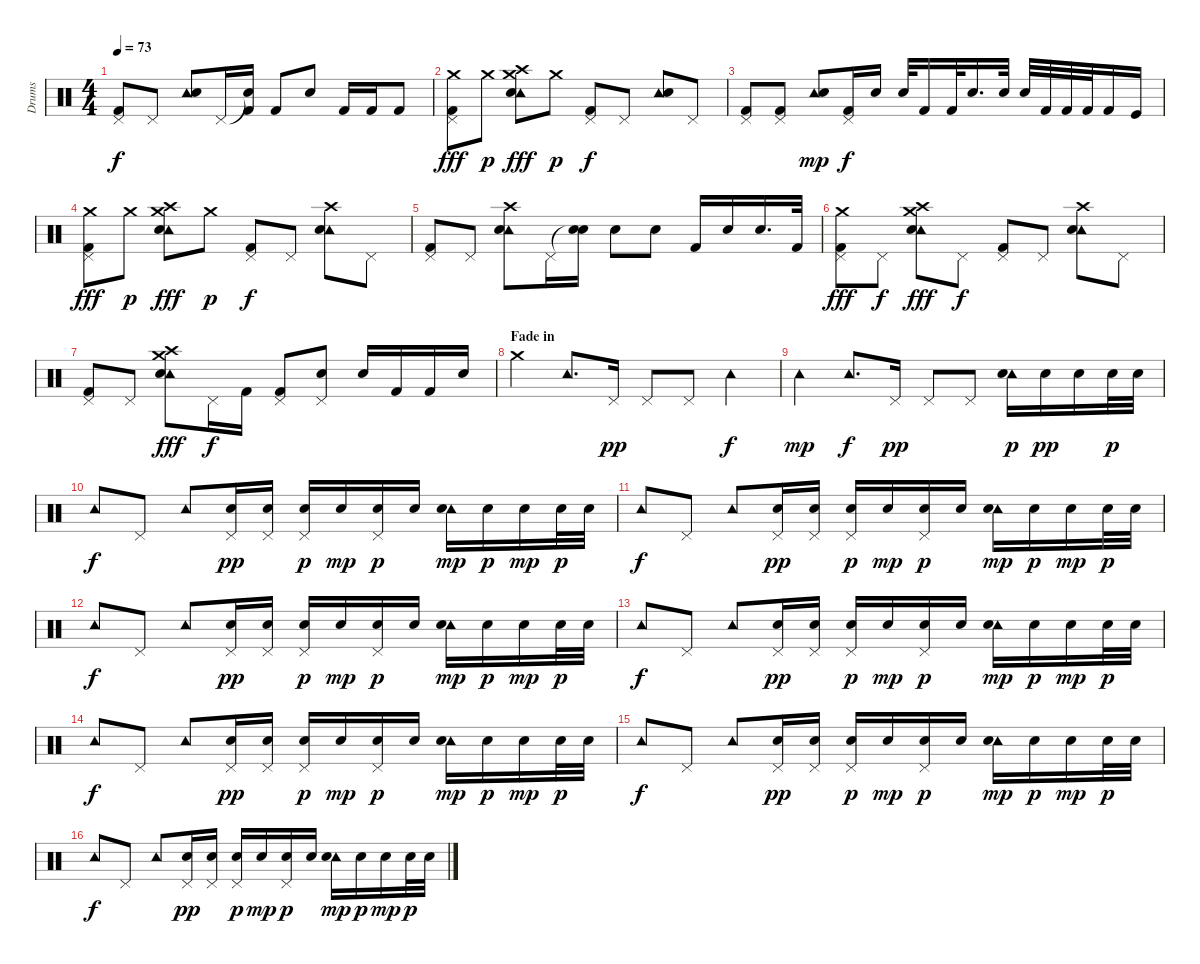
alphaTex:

\track ("Drums" "Drums") {instrument percussion}
\staff {score}
\articulation defaults
\ts (4 4)
\tempo 73
\clef neutral
\ks c
("Pedal Hi-Hat (hit)" "Kick (hit) 2").8{dy f} "Pedal Hi-Hat (hit)".8 ("Tambourine (hit)" "Snare (hit) 2").8 "Pedal Hi-Hat (hit)".16 ("Snare (hit)"{t} "Kick (hit) 2").16 "Kick (hit) 2".8 "Snare (hit) 2".8 "Kick (hit) 2".16 "Kick (hit) 2".16 "Kick (hit) 2".8 |
("Crash medium (hit)" "Pedal Hi-Hat (hit)" "Kick (hit) 2").8{dy fff} "Crash medium (hit)".8{dy p} ("Crash medium (hit)" "Tambourine (hit)" "Crash high (hit)" "Snare (hit) 2").8{dy fff} "Crash medium (hit)".8{dy p} ("Pedal Hi-Hat (hit)" "Kick (hit) 2").8{dy f} "Pedal Hi-Hat (hit)".8 ("Tambourine (hit)" "Snare (hit) 2").8 "Pedal Hi-Hat (hit)".8 |
("Pedal Hi-Hat (hit)" "Kick (hit) 2").8 ("Pedal Hi-Hat (hit)" "Kick (hit) 2").8 ("Tambourine (hit)" "Snare (hit) 2").8{dy mp} ("Pedal Hi-Hat (hit)" "Kick (hit) 2").16{dy f} "Snare (hit) 2".16 "Snare (hit) 2".32 "Kick (hit) 2".16 "Kick (hit) 2".32 "Snare (hit) 2".16{d} "Snare (hit) 2".32 "Snare (hit) 2".32 "Kick (hit) 2".32 "Kick (hit) 2".32 "Kick (hit) 2".32 "Kick (hit) 2".16 "Kick (hit)".16 |
("Crash medium (hit)" "Pedal Hi-Hat (hit)" "Kick (hit) 2").8{dy fff} "Crash medium (hit)".8{dy p} ("Crash medium (hit)" "Tambourine (hit)" "Crash high (hit)" "Snare (hit) 2").8{dy fff} "Crash medium (hit)".8{dy p} ("Pedal Hi-Hat (hit)" "Kick (hit) 2").8{dy f} "Pedal Hi-Hat (hit)".8 ("Tambourine (hit)" "Crash high (hit)" "Snare (hit) 2").8 "Pedal Hi-Hat (hit)".8 |
("Pedal Hi-Hat (hit)" "Kick (hit) 2").8 "Pedal Hi-Hat (hit)".8 ("Crash high (hit)" "Tambourine (hit)" "Snare (hit) 2").8 "Pedal Hi-Hat (hit)".16 ("Snare (hit)"{t} "Snare (hit) 2").16 "Snare (hit) 2".8 "Snare (hit) 2".8 "Kick (hit) 2".16 "Snare (hit) 2".16 "Snare (hit) 2".16{d} "Kick (hit) 2".32 |
("Crash medium (hit)" "Pedal Hi-Hat (hit)" "Kick (hit) 2").8{dy fff} "Pedal Hi-Hat (hit)".8{dy f} ("Crash medium (hit)" "Tambourine (hit)" "Crash high (hit)" "Snare (hit) 2").8{dy fff} "Pedal Hi-Hat (hit)".8{dy f} ("Pedal Hi-Hat (hit)" "Kick (hit) 2").8 "Pedal Hi-Hat (hit)".8 ("Tambourine (hit)" "Crash high (hit)" "Snare (hit) 2").8 "Pedal Hi-Hat (hit)".8 |
("Pedal Hi-Hat (hit)" "Kick (hit) 2").8 "Pedal Hi-Hat (hit)".8 ("Crash medium (hit)" "Tambourine (hit)" "Crash high (hit)" "Snare (hit) 2").8{dy fff} "Pedal Hi-Hat (hit)".16{dy f} "Kick (hit) 2".16 ("Pedal Hi-Hat (hit)" "Kick (hit) 2").8 ("Pedal Hi-Hat (hit)" "Snare (hit) 2").8 "Snare (hit) 2".16 "Kick (hit) 2".16 "Kick (hit) 2".16 "Snare (hit) 2".16 |
\section ("" "Fade in")
"Crash medium (hit)".4{volume 8} "Tambourine (hit)".8{d} "Pedal Hi-Hat (hit)".16{dy pp} "Pedal Hi-Hat (hit)".8 "Pedal Hi-Hat (hit)".8 "Tambourine (hit)".4{dy f} |
"Tambourine (hit)".4{dy mp} "Tambourine (hit)".8{d dy f} "Pedal Hi-Hat (hit)".16{dy pp} "Pedal Hi-Hat (hit)".8 "Pedal Hi-Hat (hit)".8 ("Tambourine (hit)" "Snare (hit) 2").16{dy p} "Snare (hit) 2".16{dy pp} "Snare (hit) 2".16 "Snare (hit) 2".32{dy p} "Snare (hit) 2".32 |
"Tambourine (hit)".8{dy f} "Pedal Hi-Hat (hit)".8 "Tambourine (hit)".8 ("Pedal Hi-Hat (hit)" "Snare (hit) 2").16{dy pp} ("Pedal Hi-Hat (hit)" "Snare (hit) 2").16 ("Pedal Hi-Hat (hit)" "Snare (hit) 2").16{dy p} "Snare (hit) 2".16{dy mp} ("Pedal Hi-Hat (hit)" "Snare (hit) 2").16{dy p} "Snare (hit) 2".16 ("Tambourine (hit)" "Snare (hit) 2").16{dy mp} "Snare (hit) 2".16{dy p} "Snare (hit) 2".16{dy mp} "Snare (hit) 2".32{dy p} "Snare (hit) 2".32 |
"Tambourine (hit)".8{dy f} "Pedal Hi-Hat (hit)".8 "Tambourine (hit)".8 ("Pedal Hi-Hat (hit)" "Snare (hit) 2").16{dy pp} ("Pedal Hi-Hat (hit)" "Snare (hit) 2").16 ("Pedal Hi-Hat (hit)" "Snare (hit) 2").16{dy p} "Snare (hit) 2".16{dy mp} ("Pedal Hi-Hat (hit)" "Snare (hit) 2").16{dy p} "Snare (hit) 2".16 ("Tambourine (hit)" "Snare (hit) 2").16{dy mp} "Snare (hit) 2".16{dy p} "Snare (hit) 2".16{dy mp} "Snare (hit) 2".32{dy p} "Snare (hit) 2".32 |
"Tambourine (hit)".8{dy f} "Pedal Hi-Hat (hit)".8 "Tambourine (hit)".8 ("Pedal Hi-Hat (hit)" "Snare (hit) 2").16{dy pp} ("Pedal Hi-Hat (hit)" "Snare (hit) 2").16 ("Pedal Hi-Hat (hit)" "Snare (hit) 2").16{dy p} "Snare (hit) 2".16{dy mp} ("Pedal Hi-Hat (hit)" "Snare (hit) 2").16{dy p} "Snare (hit) 2".16 ("Tambourine (hit)" "Snare (hit) 2").16{dy mp} "Snare (hit) 2".16{dy p} "Snare (hit) 2".16{dy mp} "Snare (hit) 2".32{dy p} "Snare (hit) 2".32 |
"Tambourine (hit)".8{dy f} "Pedal Hi-Hat (hit)".8 "Tambourine (hit)".8 ("Pedal Hi-Hat (hit)" "Snare (hit) 2").16{dy pp} ("Pedal Hi-Hat (hit)" "Snare (hit) 2").16 ("Pedal Hi-Hat (hit)" "Snare (hit) 2").16{dy p} "Snare (hit) 2".16{dy mp} ("Pedal Hi-Hat (hit)" "Snare (hit) 2").16{dy p} "Snare (hit) 2".16 ("Tambourine (hit)" "Snare (hit) 2").16{dy mp} "Snare (hit) 2".16{dy p} "Snare (hit) 2".16{dy mp} "Snare (hit) 2".32{dy p} "Snare (hit) 2".32 |
"Tambourine (hit)".8{dy f} "Pedal Hi-Hat (hit)".8 "Tambourine (hit)".8 ("Pedal Hi-Hat (hit)" "Snare (hit) 2").16{dy pp} ("Pedal Hi-Hat (hit)" "Snare (hit) 2").16 ("Pedal Hi-Hat (hit)" "Snare (hit) 2").16{dy p} "Snare (hit) 2".16{dy mp} ("Pedal Hi-Hat (hit)" "Snare (hit) 2").16{dy p} "Snare (hit) 2".16 ("Tambourine (hit)" "Snare (hit) 2").16{dy mp} "Snare (hit) 2".16{dy p} "Snare (hit) 2".16{dy mp} "Snare (hit) 2".32{dy p} "Snare (hit) 2".32 |
"Tambourine (hit)".8{dy f} "Pedal Hi-Hat (hit)".8 "Tambourine (hit)".8 ("Pedal Hi-Hat (hit)" "Snare (hit) 2").16{dy pp} ("Pedal Hi-Hat (hit)" "Snare (hit) 2").16 ("Pedal Hi-Hat (hit)" "Snare (hit) 2").16{dy p} "Snare (hit) 2".16{dy mp} ("Pedal Hi-Hat (hit)" "Snare (hit) 2").16{dy p} "Snare (hit) 2".16 ("Tambourine (hit)" "Snare (hit) 2").16{dy mp} "Snare (hit) 2".16{dy p} "Snare (hit) 2".16{dy mp} "Snare (hit) 2".32{dy p} "Snare (hit) 2".32 |
"Tambourine (hit)".8{dy f volume 6} "Pedal Hi-Hat (hit)".8 "Tambourine (hit)".8 ("Pedal Hi-Hat (hit)" "Snare (hit) 2").16{dy pp} ("Pedal Hi-Hat (hit)" "Snare (hit) 2").16 ("Pedal Hi-Hat (hit)" "Snare (hit) 2").16{dy p} "Snare (hit) 2".16{dy mp} ("Pedal Hi-Hat (hit)" "Snare (hit) 2").16{dy p} "Snare (hit) 2".16 ("Tambourine (hit)" "Snare (hit) 2").16{dy mp} "Snare (hit) 2".16{dy p} "Snare (hit) 2".16{dy mp} "Snare (hit) 2".32{dy p} "Snare (hit) 2".32
